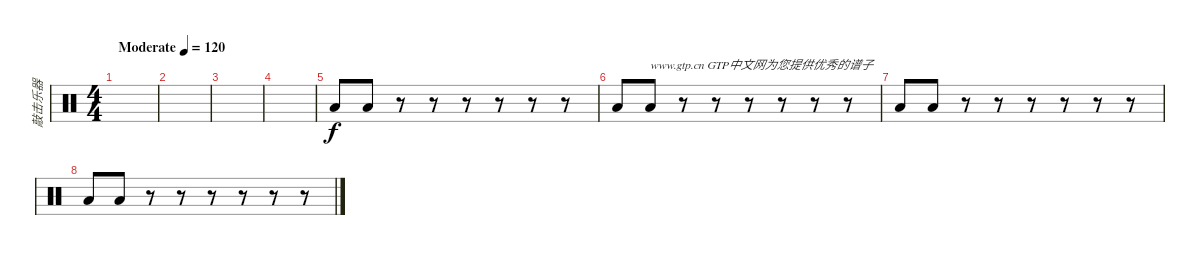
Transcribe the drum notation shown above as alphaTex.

\track ("敲击乐器" "敲击乐器") {instrument percussion}
\staff {score}
\articulation defaults
\ts (4 4)
\tempo (120 "Moderate")
\clef neutral
\ks c
|
|
|
|
"Low Tom (hit)".8 "Low Tom (hit)".8 r.8 r.8 r.8 r.8 r.8 r.8 |
"Low Tom (hit)".8 "Low Tom (hit)".8{txt "www.gtp.cn GTP中文网为您提供优秀的谱子"} r.8 r.8 r.8 r.8 r.8 r.8 |
"Low Tom (hit)".8 "Low Tom (hit)".8 r.8 r.8 r.8 r.8 r.8 r.8 |
"Low Tom (hit)".8 "Low Tom (hit)".8 r.8 r.8 r.8 r.8 r.8 r.8
